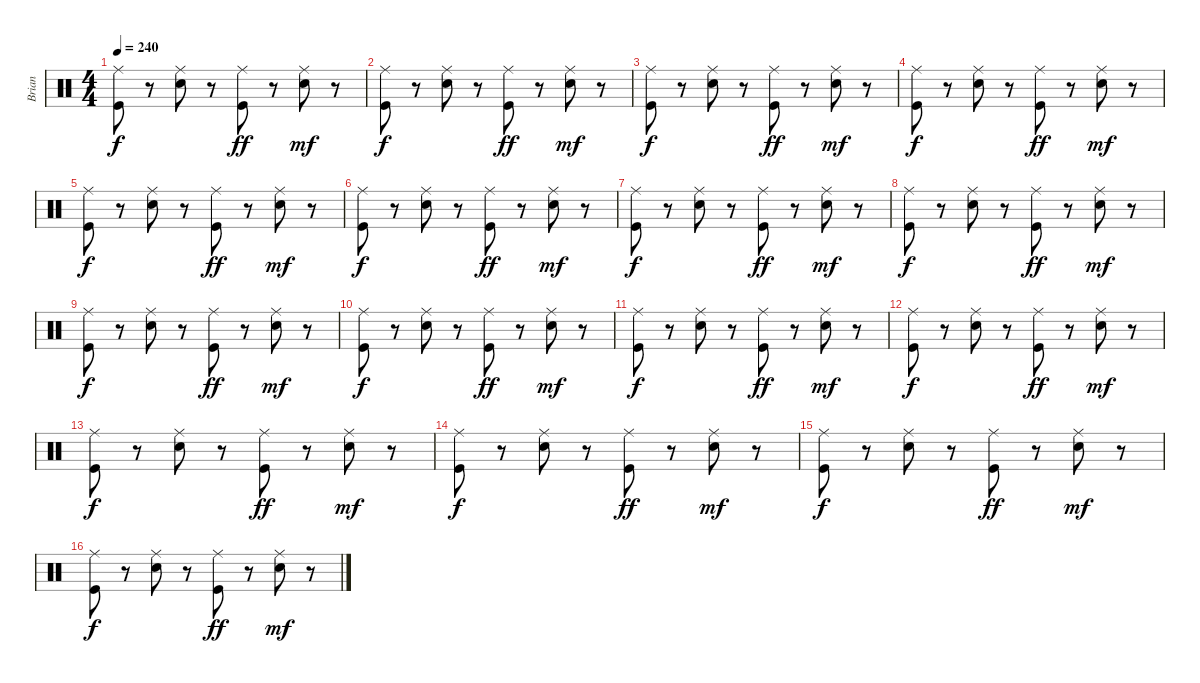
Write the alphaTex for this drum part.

\track ("Brian" "Brian") {instrument percussion}
\staff {score}
\articulation defaults
\ts (4 4)
\tempo 240
\clef neutral
\ks c
("Ride (middle)" "Kick (hit)").8{dy f} r.8 ("Ride (middle)" "Snare (hit) 2").8 r.8 ("Ride (middle)" "Kick (hit)").8{dy ff} r.8 ("Ride (middle)" "Snare (hit) 2").8{dy mf} r.8 |
("Ride (middle)" "Kick (hit)").8{dy f} r.8 ("Ride (middle)" "Snare (hit) 2").8 r.8 ("Ride (middle)" "Kick (hit)").8{dy ff} r.8 ("Ride (middle)" "Snare (hit) 2").8{dy mf} r.8 |
("Ride (middle)" "Kick (hit)").8{dy f} r.8 ("Ride (middle)" "Snare (hit) 2").8 r.8 ("Ride (middle)" "Kick (hit)").8{dy ff} r.8 ("Ride (middle)" "Snare (hit) 2").8{dy mf} r.8 |
("Ride (middle)" "Kick (hit)").8{dy f} r.8 ("Ride (middle)" "Snare (hit) 2").8 r.8 ("Ride (middle)" "Kick (hit)").8{dy ff} r.8 ("Ride (middle)" "Snare (hit) 2").8{dy mf} r.8 |
("Ride (middle)" "Kick (hit)").8{dy f} r.8 ("Ride (middle)" "Snare (hit) 2").8 r.8 ("Ride (middle)" "Kick (hit)").8{dy ff} r.8 ("Ride (middle)" "Snare (hit) 2").8{dy mf} r.8 |
("Ride (middle)" "Kick (hit)").8{dy f} r.8 ("Ride (middle)" "Snare (hit) 2").8 r.8 ("Ride (middle)" "Kick (hit)").8{dy ff} r.8 ("Ride (middle)" "Snare (hit) 2").8{dy mf} r.8 |
("Ride (middle)" "Kick (hit)").8{dy f} r.8 ("Ride (middle)" "Snare (hit) 2").8 r.8 ("Ride (middle)" "Kick (hit)").8{dy ff} r.8 ("Ride (middle)" "Snare (hit) 2").8{dy mf} r.8 |
("Ride (middle)" "Kick (hit)").8{dy f} r.8 ("Ride (middle)" "Snare (hit) 2").8 r.8 ("Ride (middle)" "Kick (hit)").8{dy ff} r.8 ("Ride (middle)" "Snare (hit) 2").8{dy mf} r.8 |
("Ride (middle)" "Kick (hit)").8{dy f} r.8 ("Ride (middle)" "Snare (hit) 2").8 r.8 ("Ride (middle)" "Kick (hit)").8{dy ff} r.8 ("Ride (middle)" "Snare (hit) 2").8{dy mf} r.8 |
("Ride (middle)" "Kick (hit)").8{dy f} r.8 ("Ride (middle)" "Snare (hit) 2").8 r.8 ("Ride (middle)" "Kick (hit)").8{dy ff} r.8 ("Ride (middle)" "Snare (hit) 2").8{dy mf} r.8 |
("Ride (middle)" "Kick (hit)").8{dy f} r.8 ("Ride (middle)" "Snare (hit) 2").8 r.8 ("Ride (middle)" "Kick (hit)").8{dy ff} r.8 ("Ride (middle)" "Snare (hit) 2").8{dy mf} r.8 |
("Ride (middle)" "Kick (hit)").8{dy f} r.8 ("Ride (middle)" "Snare (hit) 2").8 r.8 ("Ride (middle)" "Kick (hit)").8{dy ff} r.8 ("Ride (middle)" "Snare (hit) 2").8{dy mf} r.8 |
("Ride (middle)" "Kick (hit)").8{dy f} r.8 ("Ride (middle)" "Snare (hit) 2").8 r.8 ("Ride (middle)" "Kick (hit)").8{dy ff} r.8 ("Ride (middle)" "Snare (hit) 2").8{dy mf} r.8 |
("Ride (middle)" "Kick (hit)").8{dy f} r.8 ("Ride (middle)" "Snare (hit) 2").8 r.8 ("Ride (middle)" "Kick (hit)").8{dy ff} r.8 ("Ride (middle)" "Snare (hit) 2").8{dy mf} r.8 |
("Ride (middle)" "Kick (hit)").8{dy f} r.8 ("Ride (middle)" "Snare (hit) 2").8 r.8 ("Ride (middle)" "Kick (hit)").8{dy ff} r.8 ("Ride (middle)" "Snare (hit) 2").8{dy mf} r.8 |
("Ride (middle)" "Kick (hit)").8{dy f} r.8 ("Ride (middle)" "Snare (hit) 2").8 r.8 ("Ride (middle)" "Kick (hit)").8{dy ff} r.8 ("Ride (middle)" "Snare (hit) 2").8{dy mf} r.8
